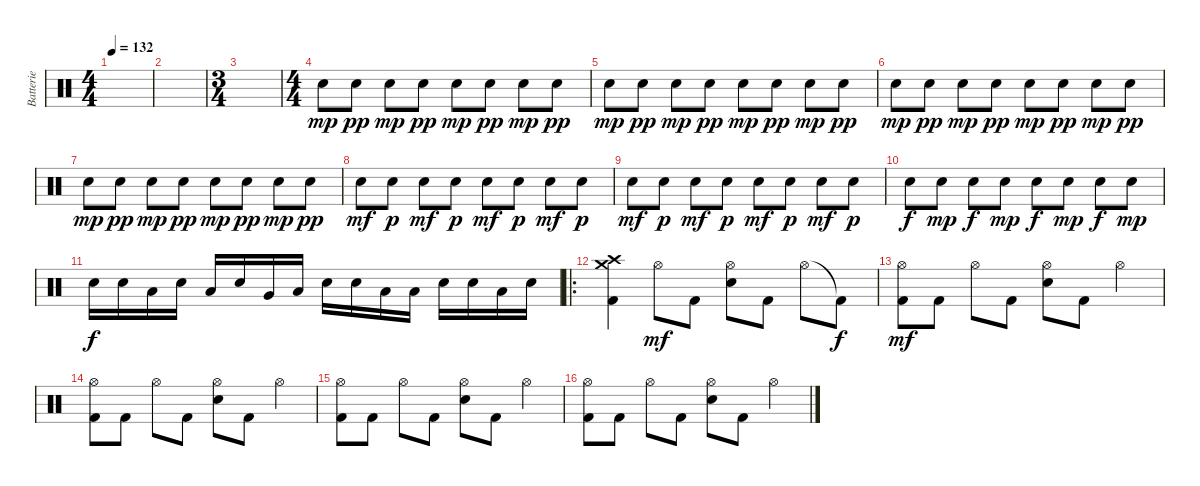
\track ("Batterie" "Batterie") {instrument percussion}
\staff {score}
\articulation defaults
\ts (4 4)
\tempo 132
\clef neutral
\ks c
|
|
\ts (3 4)
|
\ts (4 4)
"Snare (hit) 2".8{dy mp} "Snare (hit) 2".8{dy pp} "Snare (hit) 2".8{dy mp} "Snare (hit) 2".8{dy pp} "Snare (hit) 2".8{dy mp} "Snare (hit) 2".8{dy pp} "Snare (hit) 2".8{dy mp} "Snare (hit) 2".8{dy pp} |
"Snare (hit) 2".8{dy mp} "Snare (hit) 2".8{dy pp} "Snare (hit) 2".8{dy mp} "Snare (hit) 2".8{dy pp} "Snare (hit) 2".8{dy mp} "Snare (hit) 2".8{dy pp} "Snare (hit) 2".8{dy mp} "Snare (hit) 2".8{dy pp} |
"Snare (hit) 2".8{dy mp} "Snare (hit) 2".8{dy pp} "Snare (hit) 2".8{dy mp} "Snare (hit) 2".8{dy pp} "Snare (hit) 2".8{dy mp} "Snare (hit) 2".8{dy pp} "Snare (hit) 2".8{dy mp} "Snare (hit) 2".8{dy pp} |
"Snare (hit) 2".8{dy mp} "Snare (hit) 2".8{dy pp} "Snare (hit) 2".8{dy mp} "Snare (hit) 2".8{dy pp} "Snare (hit) 2".8{dy mp} "Snare (hit) 2".8{dy pp} "Snare (hit) 2".8{dy mp} "Snare (hit) 2".8{dy pp} |
"Snare (hit) 2".8{dy mf} "Snare (hit) 2".8{dy p} "Snare (hit) 2".8{dy mf} "Snare (hit) 2".8{dy p} "Snare (hit) 2".8{dy mf} "Snare (hit) 2".8{dy p} "Snare (hit) 2".8{dy mf} "Snare (hit) 2".8{dy p} |
"Snare (hit) 2".8{dy mf} "Snare (hit) 2".8{dy p} "Snare (hit) 2".8{dy mf} "Snare (hit) 2".8{dy p} "Snare (hit) 2".8{dy mf} "Snare (hit) 2".8{dy p} "Snare (hit) 2".8{dy mf} "Snare (hit) 2".8{dy p} |
"Snare (hit) 2".8{dy f} "Snare (hit) 2".8{dy mp} "Snare (hit) 2".8{dy f} "Snare (hit) 2".8{dy mp} "Snare (hit) 2".8{dy f} "Snare (hit) 2".8{dy mp} "Snare (hit) 2".8{dy f} "Snare (hit) 2".8{dy mp} |
"Snare (hit) 2".16{dy f} "Snare (hit) 2".16 "Low Floor Tom (hit)".16 "Snare (hit) 2".16 "Low Floor Tom (hit)".16 "Snare (hit) 2".16 "Very Low Tom (hit)".16 "Low Floor Tom (hit)".16 "Snare (hit) 2".16 "Snare (hit) 2".16 "Low Floor Tom (hit)".16 "Low Floor Tom (hit)".16 "Snare (hit) 2".16 "Snare (hit) 2".16 "Low Floor Tom (hit)".16 "Snare (hit) 2".16 |
\ro
("Crash high (hit)" "Crash medium (hit)" "Kick (hit) 2").4 "Hi-Hat (open)".8{dy mf} "Kick (hit) 2".8 ("Hi-Hat (open)" "Electric Snare (hit)").8 "Kick (hit) 2".8 "Hi-Hat (open)".8 "Kick (hit) 2"{t}.8{dy f} |
("Hi-Hat (open)" "Kick (hit) 2").8{dy mf} "Kick (hit) 2".8 "Hi-Hat (open)".8 "Kick (hit) 2".8 ("Hi-Hat (open)" "Electric Snare (hit)").8 "Kick (hit) 2".8 "Hi-Hat (open)".4 |
("Hi-Hat (open)" "Kick (hit) 2").8 "Kick (hit) 2".8 "Hi-Hat (open)".8 "Kick (hit) 2".8 ("Hi-Hat (open)" "Electric Snare (hit)").8 "Kick (hit) 2".8 "Hi-Hat (open)".4 |
("Hi-Hat (open)" "Kick (hit) 2").8 "Kick (hit) 2".8 "Hi-Hat (open)".8 "Kick (hit) 2".8 ("Hi-Hat (open)" "Electric Snare (hit)").8 "Kick (hit) 2".8 "Hi-Hat (open)".4 |
("Hi-Hat (open)" "Kick (hit) 2").8 "Kick (hit) 2".8 "Hi-Hat (open)".8 "Kick (hit) 2".8 ("Hi-Hat (open)" "Electric Snare (hit)").8 "Kick (hit) 2".8 "Hi-Hat (open)".4
